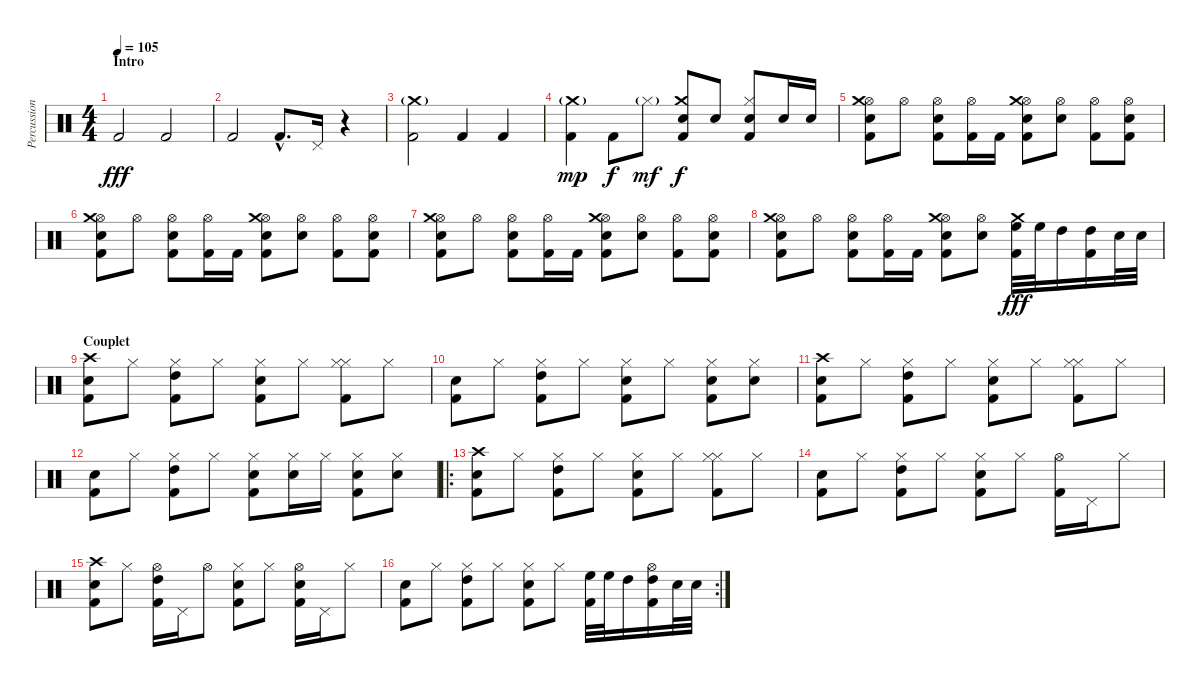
\track ("Percussions" "Percussion") {instrument percussion}
\staff {score}
\articulation defaults
\ts (4 4)
\section ("" "Intro")
\tempo 105
\clef neutral
\ks c "Kick (hit) 2".2{dy fff} "Kick (hit) 2".2
|
"Kick (hit) 2".2 "Kick (hit) 2"{hac}.8{d} "Pedal Hi-Hat (hit)".16 r.4 |
("Crash medium (hit)"{g} "Kick (hit) 2").2 "Kick (hit) 2".4 "Kick (hit) 2".4 |
("Crash medium (hit)"{g} "Kick (hit) 2").4{dy mp} "Kick (hit) 2".8{dy f} "Hi-Hat (closed)"{g}.8{dy mf} ("Crash medium (hit)" "Kick (hit) 2" "Snare (hit) 2").8{dy f} "Snare (hit) 2".8 ("Hi-Hat (closed)" "Kick (hit) 2" "Snare (hit) 2").8 "Snare (hit) 2".16 "Snare (hit) 2".16 |
("Hi-Hat (open)" "Kick (hit) 2" "Snare (hit) 2" "Crash medium (hit)").8 "Hi-Hat (open)".8 ("Hi-Hat (open)" "Kick (hit) 2" "Snare (hit) 2").8 ("Hi-Hat (open)" "Kick (hit) 2").16 "Kick (hit) 2".16 ("Hi-Hat (open)" "Kick (hit) 2" "Snare (hit) 2" "Crash medium (hit)").8 ("Hi-Hat (open)" "Snare (hit) 2").8 ("Hi-Hat (open)" "Kick (hit) 2").8 ("Hi-Hat (open)" "Kick (hit) 2" "Snare (hit) 2").8 |
("Hi-Hat (open)" "Kick (hit) 2" "Snare (hit) 2" "Crash medium (hit)").8 "Hi-Hat (open)".8 ("Hi-Hat (open)" "Kick (hit) 2" "Snare (hit) 2").8 ("Hi-Hat (open)" "Kick (hit) 2").16 "Kick (hit) 2".16 ("Hi-Hat (open)" "Kick (hit) 2" "Snare (hit) 2" "Crash medium (hit)").8 ("Hi-Hat (open)" "Snare (hit) 2").8 ("Hi-Hat (open)" "Kick (hit) 2").8 ("Hi-Hat (open)" "Kick (hit) 2" "Snare (hit) 2").8 |
("Hi-Hat (open)" "Kick (hit) 2" "Snare (hit) 2" "Crash medium (hit)").8 "Hi-Hat (open)".8 ("Hi-Hat (open)" "Kick (hit) 2" "Snare (hit) 2").8 ("Hi-Hat (open)" "Kick (hit) 2").16 "Kick (hit) 2".16 ("Hi-Hat (open)" "Kick (hit) 2" "Snare (hit) 2" "Crash medium (hit)").8 ("Hi-Hat (open)" "Snare (hit) 2").8 ("Hi-Hat (open)" "Kick (hit) 2").8 ("Hi-Hat (open)" "Kick (hit) 2" "Snare (hit) 2").8 |
("Hi-Hat (open)" "Kick (hit) 2" "Snare (hit) 2" "Crash medium (hit)").8 "Hi-Hat (open)".8 ("Hi-Hat (open)" "Kick (hit) 2" "Snare (hit) 2").8 ("Hi-Hat (open)" "Kick (hit) 2").16 "Kick (hit) 2".16 ("Hi-Hat (open)" "Kick (hit) 2" "Snare (hit) 2" "Crash medium (hit)").8 ("Hi-Hat (open)" "Snare (hit) 2").8 ("Crash medium (hit)" "Kick (hit) 2" "High Floor Tom (hit)").32{dy fff} "High Floor Tom (hit)".32 "High Tom (hit)".16 ("Kick (hit) 2" "High Tom (hit)").16 "Snare (hit) 2".32 "Snare (hit) 2".32 |
\section ("" "Couplet")
("Crash high (hit)" "Snare (hit) 2" "Kick (hit) 2").8 "Hi-Hat (closed)".8 ("Kick (hit) 2" "High Tom (hit)" "Hi-Hat (closed)").8 "Hi-Hat (closed)".8 ("Kick (hit) 2" "Snare (hit) 2" "Hi-Hat (closed)").8 "Hi-Hat (closed)".8 ("Kick (hit) 2" "Hi-Hat (closed)" "Hi-Hat (closed)").8 "Hi-Hat (closed)".8 |
("Snare (hit) 2" "Kick (hit) 2").8 "Hi-Hat (closed)".8 ("Kick (hit) 2" "High Tom (hit)" "Hi-Hat (closed)").8 "Hi-Hat (closed)".8 ("Kick (hit) 2" "Snare (hit) 2" "Hi-Hat (closed)").8 "Hi-Hat (closed)".8 ("Kick (hit) 2" "Snare (hit) 2" "Hi-Hat (closed)").8 ("Snare (hit) 2" "Hi-Hat (closed)").8 |
("Crash high (hit)" "Snare (hit) 2" "Kick (hit) 2").8 "Hi-Hat (closed)".8 ("Kick (hit) 2" "High Tom (hit)" "Hi-Hat (closed)").8 "Hi-Hat (closed)".8 ("Kick (hit) 2" "Snare (hit) 2" "Hi-Hat (closed)").8 "Hi-Hat (closed)".8 ("Kick (hit) 2" "Hi-Hat (closed)" "Hi-Hat (closed)").8 "Hi-Hat (closed)".8 |
("Snare (hit) 2" "Kick (hit) 2").8 "Hi-Hat (closed)".8 ("Kick (hit) 2" "High Tom (hit)" "Hi-Hat (closed)").8 "Hi-Hat (closed)".8 ("Kick (hit) 2" "Snare (hit) 2" "Hi-Hat (closed)").8 ("Snare (hit) 2" "Hi-Hat (closed)").16 "Hi-Hat (closed)".16 ("Kick (hit) 2" "Snare (hit) 2" "Hi-Hat (closed)").8 ("Snare (hit) 2" "Hi-Hat (closed)").8 |
\ro
("Crash high (hit)" "Snare (hit) 2" "Kick (hit) 2").8 "Hi-Hat (closed)".8 ("Kick (hit) 2" "High Tom (hit)" "Hi-Hat (closed)").8 "Hi-Hat (closed)".8 ("Kick (hit) 2" "Snare (hit) 2" "Hi-Hat (closed)").8 "Hi-Hat (closed)".8 ("Kick (hit) 2" "Hi-Hat (closed)" "Hi-Hat (closed)").8 "Hi-Hat (closed)".8 |
("Snare (hit) 2" "Kick (hit) 2").8 "Hi-Hat (closed)".8 ("Kick (hit) 2" "High Tom (hit)" "Hi-Hat (closed)").8 "Hi-Hat (closed)".8 ("Kick (hit) 2" "Snare (hit) 2" "Hi-Hat (closed)").8 "Hi-Hat (closed)".8 ("Kick (hit) 2" "Hi-Hat (open)").16 "Pedal Hi-Hat (hit)".16 "Hi-Hat (closed)".8 |
("Crash high (hit)" "Snare (hit) 2" "Kick (hit) 2").8 "Hi-Hat (closed)".8 ("Kick (hit) 2" "High Tom (hit)" "Hi-Hat (open)").16 "Pedal Hi-Hat (hit)".16 "Hi-Hat (open)".8 ("Kick (hit) 2" "Snare (hit) 2" "Hi-Hat (closed)").8 "Hi-Hat (closed)".8 ("Kick (hit) 2" "Snare (hit) 2" "Hi-Hat (open)").16 "Pedal Hi-Hat (hit)".16 "Hi-Hat (closed)".8 |
\rc 2
("Snare (hit) 2" "Kick (hit) 2").8 "Hi-Hat (closed)".8 ("Kick (hit) 2" "High Tom (hit)" "Hi-Hat (closed)").8 "Hi-Hat (closed)".8 ("Kick (hit) 2" "Snare (hit) 2" "Hi-Hat (closed)").8 "Hi-Hat (closed)".8 ("Kick (hit) 2" "High Floor Tom (hit)").32 "High Floor Tom (hit)".32 "High Tom (hit)".16 ("Kick (hit) 2" "Hi-Hat (open)" "High Tom (hit)").16 "Snare (hit) 2".32 "Snare (hit) 2".32
